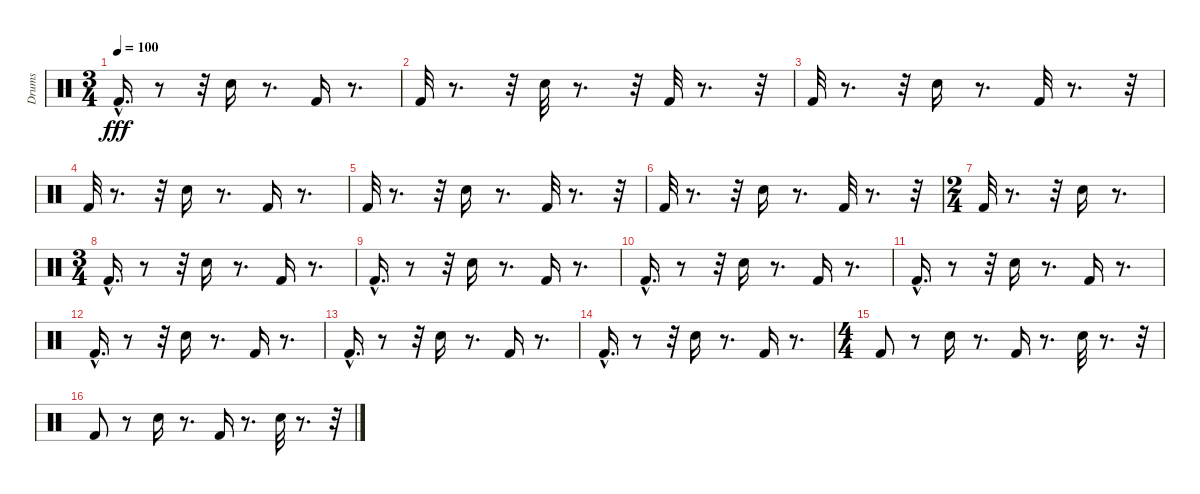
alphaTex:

\track ("Drums" "Drums") {instrument percussion}
\staff {score}
\articulation defaults
\ts (3 4)
\tempo 100
\clef neutral
\ks c "Kick (hit) 2"{hac}.16{d dy fff}
r.8 r.32 "Electric Snare (hit)".16 r.8{d} "Kick (hit) 2".16 r.8{d} |
"Kick (hit) 2".32 r.8{d} r.32 "Electric Snare (hit)".32 r.8{d} r.32 "Kick (hit) 2".32 r.8{d} r.32 |
"Kick (hit) 2".32 r.8{d} r.32 "Electric Snare (hit)".16 r.8{d} "Kick (hit) 2".32 r.8{d} r.32 |
"Kick (hit) 2".32 r.8{d} r.32 "Electric Snare (hit)".16 r.8{d} "Kick (hit) 2".16 r.8{d} |
"Kick (hit) 2".32 r.8{d} r.32 "Electric Snare (hit)".16 r.8{d} "Kick (hit) 2".32 r.8{d} r.32 |
"Kick (hit) 2".32 r.8{d} r.32 "Electric Snare (hit)".16 r.8{d} "Kick (hit) 2".32 r.8{d} r.32 |
\ts (2 4)
"Kick (hit) 2".32 r.8{d} r.32 "Electric Snare (hit)".16 r.8{d} |
\ts (3 4)
"Kick (hit) 2"{hac}.16{d} r.8 r.32 "Electric Snare (hit)".16 r.8{d} "Kick (hit) 2".16 r.8{d} |
"Kick (hit) 2"{hac}.16{d} r.8 r.32 "Electric Snare (hit)".16 r.8{d} "Kick (hit) 2".16 r.8{d} |
"Kick (hit) 2"{hac}.16{d} r.8 r.32 "Electric Snare (hit)".16 r.8{d} "Kick (hit) 2".16 r.8{d} |
"Kick (hit) 2"{hac}.16{d} r.8 r.32 "Electric Snare (hit)".16 r.8{d} "Kick (hit) 2".16 r.8{d} |
"Kick (hit) 2"{hac}.16{d} r.8 r.32 "Electric Snare (hit)".16 r.8{d} "Kick (hit) 2".16 r.8{d} |
"Kick (hit) 2"{hac}.16{d} r.8 r.32 "Electric Snare (hit)".16 r.8{d} "Kick (hit) 2".16 r.8{d} |
"Kick (hit) 2"{hac}.16{d} r.8 r.32 "Electric Snare (hit)".16 r.8{d} "Kick (hit) 2".16 r.8{d} |
\ts (4 4)
"Kick (hit) 2".8 r.8 "Electric Snare (hit)".16 r.8{d} "Kick (hit) 2".16 r.8{d} "Electric Snare (hit)".32 r.8{d} r.32 |
"Kick (hit) 2".8 r.8 "Electric Snare (hit)".16 r.8{d} "Kick (hit) 2".16 r.8{d} "Electric Snare (hit)".32 r.8{d} r.32
